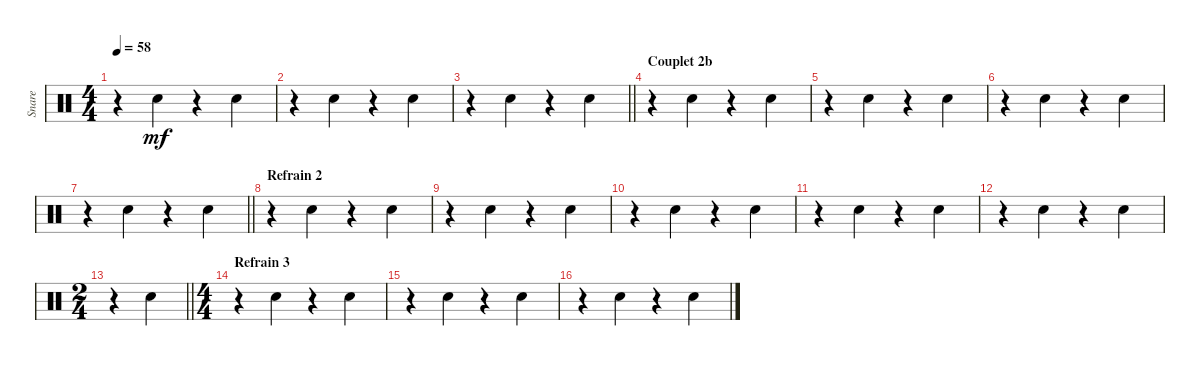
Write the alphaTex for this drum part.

\track ("Snare" "Snare") {instrument percussion}
\staff {score}
\articulation defaults
\ts (4 4)
\tempo 58
\clef neutral
\ks c
r.4{dy mf} "Electric Snare (hit)".4 r.4 "Electric Snare (hit)".4 |
r.4 "Electric Snare (hit)".4 r.4 "Electric Snare (hit)".4 |
\barLineRight lightlight
r.4 "Electric Snare (hit)".4 r.4 "Electric Snare (hit)".4 |
\section ("" "Couplet 2b")
r.4 "Electric Snare (hit)".4 r.4 "Electric Snare (hit)".4 |
r.4 "Electric Snare (hit)".4 r.4 "Electric Snare (hit)".4 |
r.4 "Electric Snare (hit)".4 r.4 "Electric Snare (hit)".4 |
\barLineRight lightlight
r.4 "Electric Snare (hit)".4 r.4 "Electric Snare (hit)".4 |
\section ("" "Refrain 2")
r.4 "Electric Snare (hit)".4 r.4 "Electric Snare (hit)".4 |
r.4 "Electric Snare (hit)".4 r.4 "Electric Snare (hit)".4 |
r.4 "Electric Snare (hit)".4 r.4 "Electric Snare (hit)".4 |
r.4 "Electric Snare (hit)".4 r.4 "Electric Snare (hit)".4 |
r.4 "Electric Snare (hit)".4 r.4 "Electric Snare (hit)".4 |
\ts (2 4)
\barLineRight lightlight
r.4 "Electric Snare (hit)".4 |
\ts (4 4)
\section ("" "Refrain 3")
r.4 "Electric Snare (hit)".4 r.4 "Electric Snare (hit)".4 |
r.4 "Electric Snare (hit)".4 r.4 "Electric Snare (hit)".4 |
r.4 "Electric Snare (hit)".4 r.4 "Electric Snare (hit)".4
